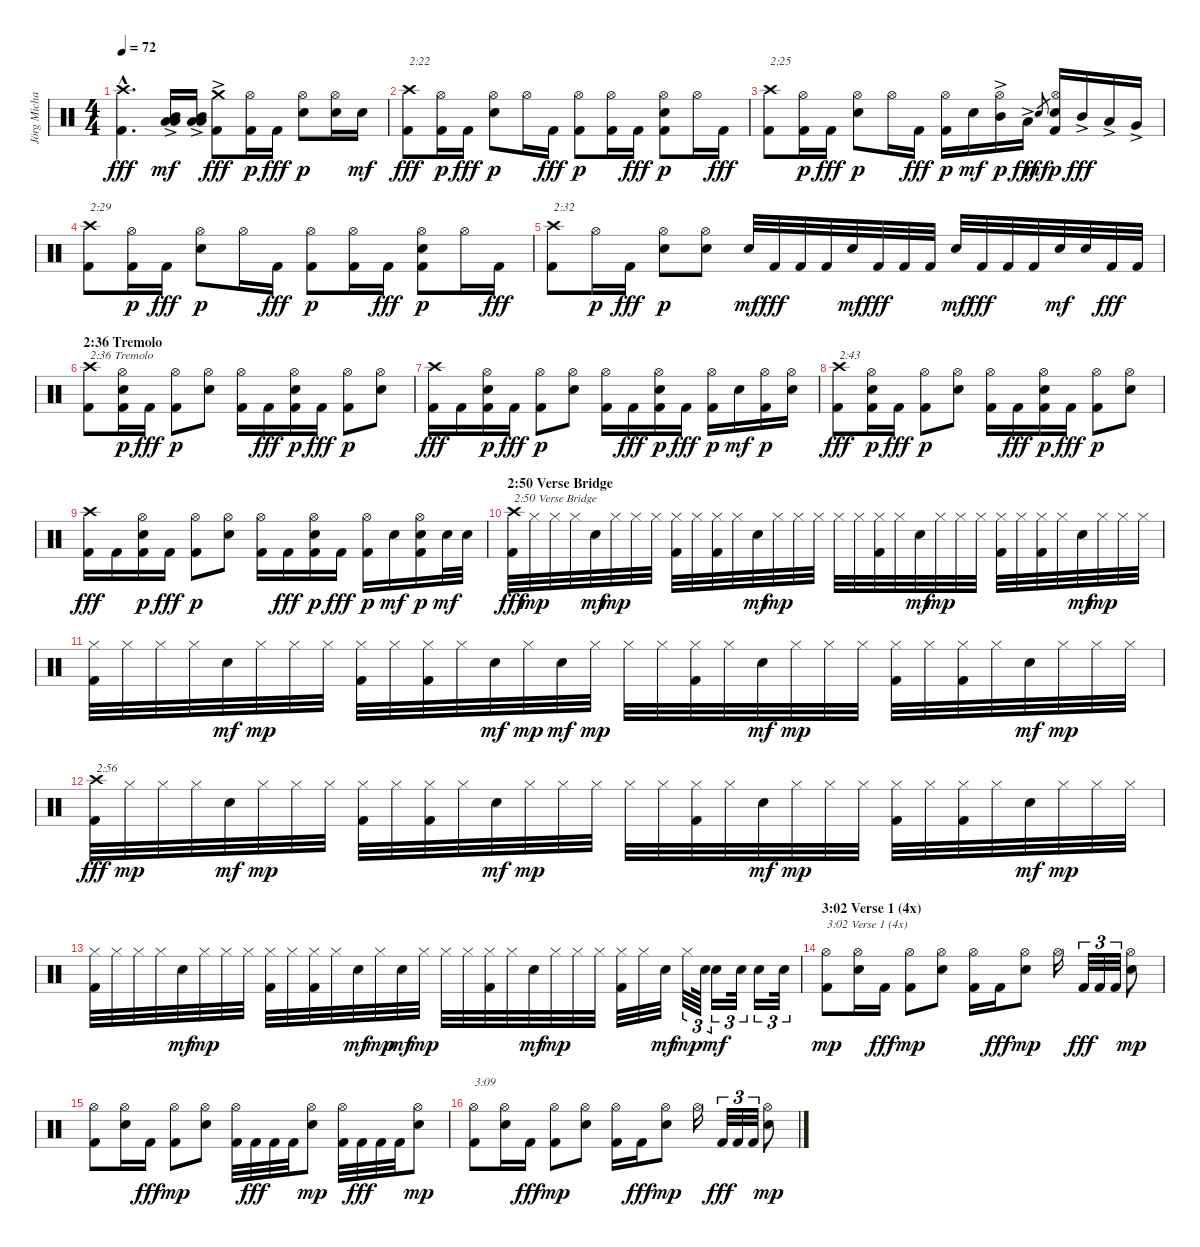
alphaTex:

\track ("Jörg Michael" "Jörg Micha") {instrument percussion}
\staff {score}
\articulation defaults
\ts (4 4)
\tempo 72
\clef neutral
\ks c
("Kick (hit) 2"{hac} "Crash high (hit)"{hac}).4{d dy fff} ("Low Tom (hit)"{ac} "Low Tom (hit)"{ac} "Mid Tom (hit)").16{dy mf} ("Low Tom (hit)"{ac} "Low Tom (hit)"{ac} "Mid Tom (hit)").16 ("Kick (hit) 2" "Crash medium (hit)"{ac}).8{dy fff} ("Kick (hit) 2" "Hi-Hat (open)").16{dy p} "Kick (hit) 2".16{dy fff} ("Snare (hit) 2" "Hi-Hat (open)").8{dy p} ("Snare (hit) 2" "Hi-Hat (open)").16 "Snare (hit) 2".16{dy mf} |
("Kick (hit) 2" "Crash high (hit)").8{txt "2:22" dy fff} ("Kick (hit) 2" "Hi-Hat (open)").16{dy p} "Kick (hit) 2".16{dy fff} ("Snare (hit) 2" "Hi-Hat (open)").8{dy p} "Hi-Hat (open)".16 "Kick (hit) 2".16{dy fff} ("Kick (hit) 2" "Hi-Hat (open)").8{dy p} ("Kick (hit) 2" "Hi-Hat (open)").16 "Kick (hit) 2".16{dy fff} ("Kick (hit) 2" "Snare (hit) 2" "Hi-Hat (open)").8{dy p} "Hi-Hat (open)".16 "Kick (hit) 2".16{dy fff} |
("Kick (hit) 2" "Crash high (hit)").8{txt "2:25"} ("Kick (hit) 2" "Hi-Hat (open)").16{dy p} "Kick (hit) 2".16{dy fff} ("Snare (hit) 2" "Hi-Hat (open)").8{dy p} "Hi-Hat (open)".16 "Kick (hit) 2".16{dy fff} ("Kick (hit) 2" "Hi-Hat (open)").16{dy p} "Snare (hit) 2".16{dy mf} ("Mid Tom (hit)"{ac} "Hi-Hat (open)").16{dy p} "Low Tom (hit)"{ac}.16{dy fff} "Snare (hit) 2".8{gr dy mf} ("Kick (hit) 2" "Snare (hit) 2" "Hi-Hat (open)").16{dy p} "Mid Tom (hit)"{ac}.16{dy fff} "Low Tom (hit)"{ac}.16 "Very Low Tom (hit)"{ac}.16 |
("Kick (hit) 2" "Crash high (hit)").8{txt "2:29"} ("Kick (hit) 2" "Hi-Hat (open)").16{dy p} "Kick (hit) 2".16{dy fff} ("Snare (hit) 2" "Hi-Hat (open)").8{dy p} "Hi-Hat (open)".16 "Kick (hit) 2".16{dy fff} ("Kick (hit) 2" "Hi-Hat (open)").8{dy p} ("Kick (hit) 2" "Hi-Hat (open)").16 "Kick (hit) 2".16{dy fff} ("Kick (hit) 2" "Snare (hit) 2" "Hi-Hat (open)").8{dy p} "Hi-Hat (open)".16 "Kick (hit) 2".16{dy fff} |
("Kick (hit) 2" "Crash high (hit)").8{txt "2:32"} "Hi-Hat (open)".16{dy p} "Kick (hit) 2".16{dy fff} ("Snare (hit) 2" "Hi-Hat (open)").8{dy p} ("Snare (hit) 2" "Hi-Hat (open)").8 "Snare (hit) 2".32{dy mf} "Kick (hit) 2".32{dy fff} "Kick (hit) 2".32 "Kick (hit) 2".32 "Snare (hit) 2".32{dy mf} "Kick (hit) 2".32{dy fff} "Kick (hit) 2".32 "Kick (hit) 2".32 "Snare (hit) 2".32{dy mf} "Kick (hit) 2".32{dy fff} "Kick (hit) 2".32 "Kick (hit) 2".32 "Snare (hit) 2".32{dy mf} "Snare (hit) 2".32 "Kick (hit) 2".32{dy fff} "Kick (hit) 2".32 |
\section ("" "2:36 Tremolo")
("Kick (hit) 2" "Crash high (hit)").8{txt "2:36 Tremolo"} ("Kick (hit) 2" "Snare (hit) 2" "Hi-Hat (open)").16{dy p} "Kick (hit) 2".16{dy fff} ("Kick (hit) 2" "Hi-Hat (open)").8{dy p} ("Snare (hit) 2" "Hi-Hat (open)").8 ("Kick (hit) 2" "Hi-Hat (open)").16 "Kick (hit) 2".16{dy fff} ("Kick (hit) 2" "Snare (hit) 2" "Hi-Hat (open)").16{dy p} "Kick (hit) 2".16{dy fff} ("Kick (hit) 2" "Hi-Hat (open)").8{dy p} ("Snare (hit) 2" "Hi-Hat (open)").8 |
("Kick (hit) 2" "Crash high (hit)").16{dy fff} "Kick (hit) 2".16 ("Kick (hit) 2" "Snare (hit) 2" "Hi-Hat (open)").16{dy p} "Kick (hit) 2".16{dy fff} ("Kick (hit) 2" "Hi-Hat (open)").8{dy p} ("Snare (hit) 2" "Hi-Hat (open)").8 ("Kick (hit) 2" "Hi-Hat (open)").16 "Kick (hit) 2".16{dy fff} ("Kick (hit) 2" "Snare (hit) 2" "Hi-Hat (open)").16{dy p} "Kick (hit) 2".16{dy fff} ("Kick (hit) 2" "Hi-Hat (open)").16{dy p} "Snare (hit) 2".16{dy mf} ("Kick (hit) 2" "Hi-Hat (open)").16{dy p} ("Snare (hit) 2" "Hi-Hat (open)").16 |
("Kick (hit) 2" "Crash high (hit)").8{txt "2:43" dy fff} ("Kick (hit) 2" "Snare (hit) 2" "Hi-Hat (open)").16{dy p} "Kick (hit) 2".16{dy fff} ("Kick (hit) 2" "Hi-Hat (open)").8{dy p} ("Snare (hit) 2" "Hi-Hat (open)").8 ("Kick (hit) 2" "Hi-Hat (open)").16 "Kick (hit) 2".16{dy fff} ("Kick (hit) 2" "Snare (hit) 2" "Hi-Hat (open)").16{dy p} "Kick (hit) 2".16{dy fff} ("Kick (hit) 2" "Hi-Hat (open)").8{dy p} ("Snare (hit) 2" "Hi-Hat (open)").8 |
("Kick (hit) 2" "Crash high (hit)").16{dy fff} "Kick (hit) 2".16 ("Kick (hit) 2" "Snare (hit) 2" "Hi-Hat (open)").16{dy p} "Kick (hit) 2".16{dy fff} ("Kick (hit) 2" "Hi-Hat (open)").8{dy p} ("Snare (hit) 2" "Hi-Hat (open)").8 ("Kick (hit) 2" "Hi-Hat (open)").16 "Kick (hit) 2".16{dy fff} ("Kick (hit) 2" "Snare (hit) 2" "Hi-Hat (open)").16{dy p} "Kick (hit) 2".16{dy fff} ("Kick (hit) 2" "Hi-Hat (open)").16{dy p} "Snare (hit) 2".16{dy mf} ("Kick (hit) 2" "Snare (hit) 2" "Hi-Hat (open)").16{dy p} "Snare (hit) 2".32{dy mf} "Snare (hit) 2".32 |
\section ("" "2:50 Verse Bridge")
("Kick (hit) 2" "Crash high (hit)").32{txt "2:50 Verse Bridge" dy fff} "Hi-Hat (closed)".32{dy mp} "Hi-Hat (closed)".32 "Hi-Hat (closed)".32 "Snare (hit) 2".32{dy mf} "Hi-Hat (closed)".32{dy mp} "Hi-Hat (closed)".32 "Hi-Hat (closed)".32 ("Kick (hit) 2" "Hi-Hat (closed)").32 "Hi-Hat (closed)".32 ("Kick (hit) 2" "Hi-Hat (closed)").32 "Hi-Hat (closed)".32 "Snare (hit) 2".32{dy mf} "Hi-Hat (closed)".32{dy mp} "Hi-Hat (closed)".32 "Hi-Hat (closed)".32 "Hi-Hat (closed)".32 "Hi-Hat (closed)".32 ("Kick (hit) 2" "Hi-Hat (closed)").32 "Hi-Hat (closed)".32 "Snare (hit) 2".32{dy mf} "Hi-Hat (closed)".32{dy mp} "Hi-Hat (closed)".32 "Hi-Hat (closed)".32 ("Kick (hit) 2" "Hi-Hat (closed)").32 "Hi-Hat (closed)".32 ("Kick (hit) 2" "Hi-Hat (closed)").32 "Hi-Hat (closed)".32 "Snare (hit) 2".32{dy mf} "Hi-Hat (closed)".32{dy mp} "Hi-Hat (closed)".32 "Hi-Hat (closed)".32 |
("Kick (hit) 2" "Hi-Hat (closed)").32 "Hi-Hat (closed)".32 "Hi-Hat (closed)".32 "Hi-Hat (closed)".32 "Snare (hit) 2".32{dy mf} "Hi-Hat (closed)".32{dy mp} "Hi-Hat (closed)".32 "Hi-Hat (closed)".32 ("Kick (hit) 2" "Hi-Hat (closed)").32 "Hi-Hat (closed)".32 ("Kick (hit) 2" "Hi-Hat (closed)").32 "Hi-Hat (closed)".32 "Snare (hit) 2".32{dy mf} "Hi-Hat (closed)".32{dy mp} "Snare (hit) 2".32{dy mf} "Hi-Hat (closed)".32{dy mp} "Hi-Hat (closed)".32 "Hi-Hat (closed)".32 ("Kick (hit) 2" "Hi-Hat (closed)").32 "Hi-Hat (closed)".32 "Snare (hit) 2".32{dy mf} "Hi-Hat (closed)".32{dy mp} "Hi-Hat (closed)".32 "Hi-Hat (closed)".32 ("Kick (hit) 2" "Hi-Hat (closed)").32 "Hi-Hat (closed)".32 ("Kick (hit) 2" "Hi-Hat (closed)").32 "Hi-Hat (closed)".32 "Snare (hit) 2".32{dy mf} "Hi-Hat (closed)".32{dy mp} "Hi-Hat (closed)".32 "Hi-Hat (closed)".32 |
("Kick (hit) 2" "Crash high (hit)").32{txt "2:56" dy fff} "Hi-Hat (closed)".32{dy mp} "Hi-Hat (closed)".32 "Hi-Hat (closed)".32 "Snare (hit) 2".32{dy mf} "Hi-Hat (closed)".32{dy mp} "Hi-Hat (closed)".32 "Hi-Hat (closed)".32 ("Kick (hit) 2" "Hi-Hat (closed)").32 "Hi-Hat (closed)".32 ("Kick (hit) 2" "Hi-Hat (closed)").32 "Hi-Hat (closed)".32 "Snare (hit) 2".32{dy mf} "Hi-Hat (closed)".32{dy mp} "Hi-Hat (closed)".32 "Hi-Hat (closed)".32 "Hi-Hat (closed)".32 "Hi-Hat (closed)".32 ("Kick (hit) 2" "Hi-Hat (closed)").32 "Hi-Hat (closed)".32 "Snare (hit) 2".32{dy mf} "Hi-Hat (closed)".32{dy mp} "Hi-Hat (closed)".32 "Hi-Hat (closed)".32 ("Kick (hit) 2" "Hi-Hat (closed)").32 "Hi-Hat (closed)".32 ("Kick (hit) 2" "Hi-Hat (closed)").32 "Hi-Hat (closed)".32 "Snare (hit) 2".32{dy mf} "Hi-Hat (closed)".32{dy mp} "Hi-Hat (closed)".32 "Hi-Hat (closed)".32 |
("Kick (hit) 2" "Hi-Hat (closed)").32 "Hi-Hat (closed)".32 "Hi-Hat (closed)".32 "Hi-Hat (closed)".32 "Snare (hit) 2".32{dy mf} "Hi-Hat (closed)".32{dy mp} "Hi-Hat (closed)".32 "Hi-Hat (closed)".32 ("Kick (hit) 2" "Hi-Hat (closed)").32 "Hi-Hat (closed)".32 ("Kick (hit) 2" "Hi-Hat (closed)").32 "Hi-Hat (closed)".32 "Snare (hit) 2".32{dy mf} "Hi-Hat (closed)".32{dy mp} "Snare (hit) 2".32{dy mf} "Hi-Hat (closed)".32{dy mp} "Hi-Hat (closed)".32 "Hi-Hat (closed)".32 ("Kick (hit) 2" "Hi-Hat (closed)").32 "Hi-Hat (closed)".32 "Snare (hit) 2".32{dy mf} "Hi-Hat (closed)".32{dy mp} "Hi-Hat (closed)".32 "Hi-Hat (closed)".32 ("Kick (hit) 2" "Hi-Hat (closed)").32 "Hi-Hat (closed)".32 "Snare (hit) 2".32{dy mf} "Hi-Hat (closed)".32{tu (3 2) dy mp} "Snare (hit) 2".64{tu (3 2)} "Snare (hit) 2".16{tu (3 2) dy mf} "Snare (hit) 2".32{tu (3 2)} "Snare (hit) 2".16{tu (3 2)} "Snare (hit) 2".32{tu (3 2)} |
\section ("" "3:02 Verse 1 (4x)")
("Kick (hit) 2" "Hi-Hat (open)").8{txt "3:02 Verse 1 (4x)" dy mp} ("Snare (hit) 2" "Hi-Hat (open)").16 "Kick (hit) 2".16{dy fff} ("Kick (hit) 2" "Hi-Hat (open)").8{dy mp} ("Snare (hit) 2" "Hi-Hat (open)").8 ("Kick (hit) 2" "Hi-Hat (open)").16 "Kick (hit) 2".16{dy fff} ("Snare (hit) 2" "Hi-Hat (open)").8{dy mp} "Hi-Hat (open)".16 "Kick (hit) 2".32{tu (3 2) dy fff} "Kick (hit) 2".32{tu (3 2)} "Kick (hit) 2".32{tu (3 2)} ("Snare (hit) 2" "Hi-Hat (open)").8{dy mp} |
("Kick (hit) 2" "Hi-Hat (open)").8 ("Snare (hit) 2" "Hi-Hat (open)").16 "Kick (hit) 2".16{dy fff} ("Kick (hit) 2" "Hi-Hat (open)").8{dy mp} ("Snare (hit) 2" "Hi-Hat (open)").8 ("Kick (hit) 2" "Hi-Hat (open)").32 "Kick (hit) 2".32{dy fff} "Kick (hit) 2".32 "Kick (hit) 2".32 ("Snare (hit) 2" "Hi-Hat (open)").8{dy mp} ("Kick (hit) 2" "Hi-Hat (open)").32 "Kick (hit) 2".32{dy fff} "Kick (hit) 2".32 "Kick (hit) 2".32 ("Snare (hit) 2" "Hi-Hat (open)").8{dy mp} |
("Kick (hit) 2" "Hi-Hat (open)").8{txt "3:09"} ("Snare (hit) 2" "Hi-Hat (open)").16 "Kick (hit) 2".16{dy fff} ("Kick (hit) 2" "Hi-Hat (open)").8{dy mp} ("Snare (hit) 2" "Hi-Hat (open)").8 ("Kick (hit) 2" "Hi-Hat (open)").16 "Kick (hit) 2".16{dy fff} ("Snare (hit) 2" "Hi-Hat (open)").8{dy mp} "Hi-Hat (open)".16 "Kick (hit) 2".32{tu (3 2) dy fff} "Kick (hit) 2".32{tu (3 2)} "Kick (hit) 2".32{tu (3 2)} ("Snare (hit) 2" "Hi-Hat (open)").8{dy mp}
